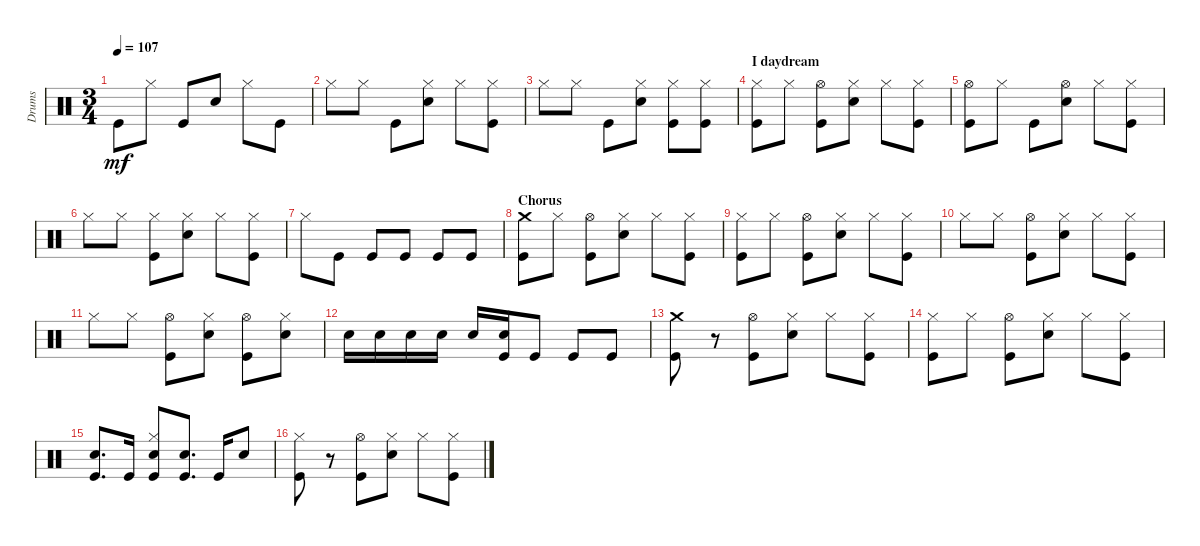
\track ("Drums" "Drums") {instrument percussion}
\staff {score}
\articulation defaults
\ts (3 4)
\tempo 107
\clef neutral
\ks c "Kick (hit)".8{dy mf} "Hi-Hat (closed)".8 "Kick (hit)".8 "Snare (hit) 2".8 "Hi-Hat (closed)".8 "Kick (hit)".8
|
"Hi-Hat (closed)".8 "Hi-Hat (closed)".8 "Kick (hit)".8 ("Snare (hit) 2" "Hi-Hat (closed)").8 "Hi-Hat (closed)".8 ("Kick (hit)" "Hi-Hat (closed)").8 |
"Hi-Hat (closed)".8 "Hi-Hat (closed)".8 "Kick (hit)".8 ("Snare (hit) 2" "Hi-Hat (closed)").8 ("Kick (hit)" "Hi-Hat (closed)").8 ("Kick (hit)" "Hi-Hat (closed)").8 |
\section ("" "I daydream")
("Kick (hit)" "Hi-Hat (closed)").8 "Hi-Hat (closed)".8 ("Hi-Hat (open)" "Kick (hit)").8 ("Hi-Hat (closed)" "Snare (hit) 2").8 "Hi-Hat (closed)".8 ("Kick (hit)" "Hi-Hat (closed)").8 |
("Kick (hit)" "Hi-Hat (open)").8 "Hi-Hat (closed)".8 "Kick (hit)".8 ("Hi-Hat (open)" "Snare (hit) 2").8 "Hi-Hat (closed)".8 ("Kick (hit)" "Hi-Hat (closed)").8 |
"Hi-Hat (closed)".8 "Hi-Hat (closed)".8 ("Kick (hit)" "Hi-Hat (closed)").8 ("Snare (hit) 2" "Hi-Hat (closed)").8 "Hi-Hat (closed)".8 ("Kick (hit)" "Hi-Hat (closed)").8 |
"Hi-Hat (closed)".8 "Kick (hit)".8 "Kick (hit)".8 "Kick (hit)".8 "Kick (hit)".8 "Kick (hit)".8 |
\section ("" "Chorus")
("Kick (hit)" "Crash medium (hit)").8 "Hi-Hat (closed)".8 ("Hi-Hat (open)" "Kick (hit)").8 ("Snare (hit) 2" "Hi-Hat (closed)").8 "Hi-Hat (closed)".8 ("Hi-Hat (closed)" "Kick (hit)").8 |
("Hi-Hat (closed)" "Kick (hit)").8 "Hi-Hat (closed)".8 ("Hi-Hat (open)" "Kick (hit)").8 ("Hi-Hat (closed)" "Snare (hit) 2").8 "Hi-Hat (closed)".8 ("Hi-Hat (closed)" "Kick (hit)").8 |
"Hi-Hat (closed)".8 "Hi-Hat (closed)".8 ("Hi-Hat (open)" "Kick (hit)").8 ("Snare (hit) 2" "Hi-Hat (closed)").8 "Hi-Hat (closed)".8 ("Kick (hit)" "Hi-Hat (closed)").8 |
"Hi-Hat (closed)".8 "Hi-Hat (closed)".8 ("Hi-Hat (open)" "Kick (hit)").8 ("Hi-Hat (closed)" "Snare (hit) 2").8 ("Hi-Hat (open)" "Kick (hit)").8 ("Hi-Hat (closed)" "Snare (hit) 2").8 |
"Snare (hit) 2".16 "Snare (hit) 2".16 "Snare (hit) 2".16 "Snare (hit) 2".16 "Snare (hit) 2".16 ("Kick (hit)" "Snare (hit) 2").16 "Kick (hit)".8 "Kick (hit)".8 "Kick (hit)".8 |
("Kick (hit)" "Crash medium (hit)").8 r.8 ("Hi-Hat (open)" "Kick (hit)").8 ("Snare (hit) 2" "Hi-Hat (closed)").8 "Hi-Hat (closed)".8 ("Hi-Hat (closed)" "Kick (hit)").8 |
("Hi-Hat (closed)" "Kick (hit)").8 "Hi-Hat (closed)".8 ("Hi-Hat (open)" "Kick (hit)").8 ("Hi-Hat (closed)" "Snare (hit) 2").8 "Hi-Hat (closed)".8 ("Hi-Hat (closed)" "Kick (hit)").8 |
("Kick (hit)" "Snare (hit) 2").8{d} "Kick (hit)".16 ("Hi-Hat (closed)" "Kick (hit)" "Snare (hit) 2").8 ("Kick (hit)" "Snare (hit) 2").8{d} "Kick (hit)".16 "Snare (hit) 2".8 |
("Kick (hit)" "Hi-Hat (closed)").8 r.8 ("Hi-Hat (open)" "Kick (hit)").8 ("Snare (hit) 2" "Hi-Hat (closed)").8 "Hi-Hat (closed)".8 ("Hi-Hat (closed)" "Kick (hit)").8
